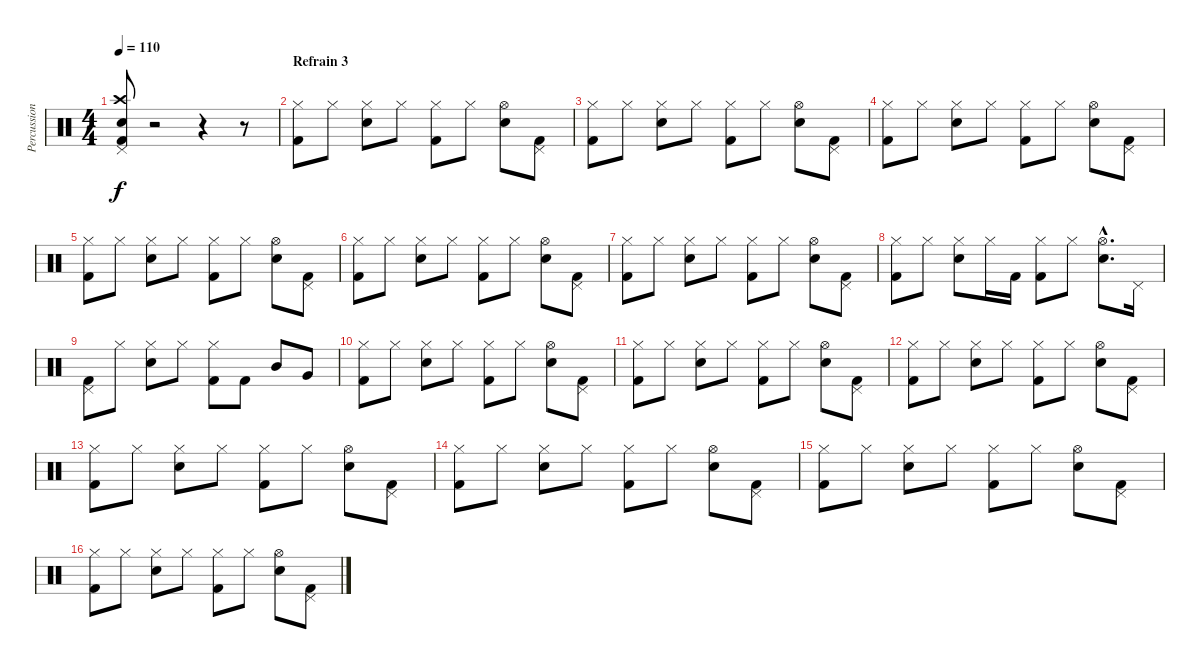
\track ("Percussion" "Percussion") {instrument percussion}
\staff {score}
\articulation defaults
\ts (4 4)
\tempo 110
\clef neutral
\ks c
("Pedal Hi-Hat (hit)" "Crash high (hit)" "Snare (hit) 2" "Kick (hit) 2").8{dy f} r.2 r.4 r.8 |
\section ("" "Refrain 3")
("Hi-Hat (closed)" "Kick (hit) 2").8 "Hi-Hat (closed)".8 ("Hi-Hat (closed)" "Snare (hit) 2").8 "Hi-Hat (closed)".8 ("Hi-Hat (closed)" "Kick (hit) 2").8 "Hi-Hat (closed)".8 ("Hi-Hat (open)" "Snare (hit) 2").8 ("Pedal Hi-Hat (hit)" "Kick (hit) 2").8 |
("Hi-Hat (closed)" "Kick (hit) 2").8 "Hi-Hat (closed)".8 ("Hi-Hat (closed)" "Snare (hit) 2").8 "Hi-Hat (closed)".8 ("Hi-Hat (closed)" "Kick (hit) 2").8 "Hi-Hat (closed)".8 ("Hi-Hat (open)" "Snare (hit) 2").8 ("Pedal Hi-Hat (hit)" "Kick (hit) 2").8 |
("Hi-Hat (closed)" "Kick (hit) 2").8 "Hi-Hat (closed)".8 ("Hi-Hat (closed)" "Snare (hit) 2").8 "Hi-Hat (closed)".8 ("Hi-Hat (closed)" "Kick (hit) 2").8 "Hi-Hat (closed)".8 ("Hi-Hat (open)" "Snare (hit) 2").8 ("Pedal Hi-Hat (hit)" "Kick (hit) 2").8 |
("Hi-Hat (closed)" "Kick (hit) 2").8 "Hi-Hat (closed)".8 ("Hi-Hat (closed)" "Snare (hit) 2").8 "Hi-Hat (closed)".8 ("Hi-Hat (closed)" "Kick (hit) 2").8 "Hi-Hat (closed)".8 ("Hi-Hat (open)" "Snare (hit) 2").8 ("Pedal Hi-Hat (hit)" "Kick (hit) 2").8 |
("Hi-Hat (closed)" "Kick (hit) 2").8 "Hi-Hat (closed)".8 ("Hi-Hat (closed)" "Snare (hit) 2").8 "Hi-Hat (closed)".8 ("Hi-Hat (closed)" "Kick (hit) 2").8 "Hi-Hat (closed)".8 ("Hi-Hat (open)" "Snare (hit) 2").8 ("Pedal Hi-Hat (hit)" "Kick (hit) 2").8 |
("Hi-Hat (closed)" "Kick (hit) 2").8 "Hi-Hat (closed)".8 ("Hi-Hat (closed)" "Snare (hit) 2").8 "Hi-Hat (closed)".8 ("Hi-Hat (closed)" "Kick (hit) 2").8 "Hi-Hat (closed)".8 ("Hi-Hat (open)" "Snare (hit) 2").8 ("Pedal Hi-Hat (hit)" "Kick (hit) 2").8 |
("Hi-Hat (closed)" "Kick (hit) 2").8 "Hi-Hat (closed)".8 ("Hi-Hat (closed)" "Snare (hit) 2").8 "Hi-Hat (closed)".16 "Kick (hit) 2".16 ("Hi-Hat (closed)" "Kick (hit) 2").8 "Hi-Hat (closed)".8 ("Hi-Hat (open)"{hac} "Snare (hit) 2"{hac}).8{d} "Pedal Hi-Hat (hit)".16 |
("Pedal Hi-Hat (hit)" "Kick (hit) 2").8 "Hi-Hat (closed)".8 ("Hi-Hat (closed)" "Snare (hit) 2").8 "Hi-Hat (closed)".8 ("Hi-Hat (closed)" "Kick (hit) 2").8 "Kick (hit) 2".8 "Mid Tom (hit)".8 "Very Low Tom (hit)".8 |
("Hi-Hat (closed)" "Kick (hit) 2").8 "Hi-Hat (closed)".8 ("Hi-Hat (closed)" "Snare (hit) 2").8 "Hi-Hat (closed)".8 ("Hi-Hat (closed)" "Kick (hit) 2").8 "Hi-Hat (closed)".8 ("Hi-Hat (open)" "Snare (hit) 2").8 ("Pedal Hi-Hat (hit)" "Kick (hit) 2").8 |
("Hi-Hat (closed)" "Kick (hit) 2").8 "Hi-Hat (closed)".8 ("Hi-Hat (closed)" "Snare (hit) 2").8 "Hi-Hat (closed)".8 ("Hi-Hat (closed)" "Kick (hit) 2").8 "Hi-Hat (closed)".8 ("Hi-Hat (open)" "Snare (hit) 2").8 ("Pedal Hi-Hat (hit)" "Kick (hit) 2").8 |
("Hi-Hat (closed)" "Kick (hit) 2").8 "Hi-Hat (closed)".8 ("Hi-Hat (closed)" "Snare (hit) 2").8 "Hi-Hat (closed)".8 ("Hi-Hat (closed)" "Kick (hit) 2").8 "Hi-Hat (closed)".8 ("Hi-Hat (open)" "Snare (hit) 2").8 ("Pedal Hi-Hat (hit)" "Kick (hit) 2").8 |
("Hi-Hat (closed)" "Kick (hit) 2").8 "Hi-Hat (closed)".8 ("Hi-Hat (closed)" "Snare (hit) 2").8 "Hi-Hat (closed)".8 ("Hi-Hat (closed)" "Kick (hit) 2").8 "Hi-Hat (closed)".8 ("Hi-Hat (open)" "Snare (hit) 2").8 ("Pedal Hi-Hat (hit)" "Kick (hit) 2").8 |
("Hi-Hat (closed)" "Kick (hit) 2").8 "Hi-Hat (closed)".8 ("Hi-Hat (closed)" "Snare (hit) 2").8 "Hi-Hat (closed)".8 ("Hi-Hat (closed)" "Kick (hit) 2").8 "Hi-Hat (closed)".8 ("Hi-Hat (open)" "Snare (hit) 2").8 ("Pedal Hi-Hat (hit)" "Kick (hit) 2").8 |
("Hi-Hat (closed)" "Kick (hit) 2").8 "Hi-Hat (closed)".8 ("Hi-Hat (closed)" "Snare (hit) 2").8 "Hi-Hat (closed)".8 ("Hi-Hat (closed)" "Kick (hit) 2").8 "Hi-Hat (closed)".8 ("Hi-Hat (open)" "Snare (hit) 2").8 ("Pedal Hi-Hat (hit)" "Kick (hit) 2").8 |
("Hi-Hat (closed)" "Kick (hit) 2").8 "Hi-Hat (closed)".8 ("Hi-Hat (closed)" "Snare (hit) 2").8 "Hi-Hat (closed)".8 ("Hi-Hat (closed)" "Kick (hit) 2").8 "Hi-Hat (closed)".8 ("Hi-Hat (open)" "Snare (hit) 2").8 ("Pedal Hi-Hat (hit)" "Kick (hit) 2").8
